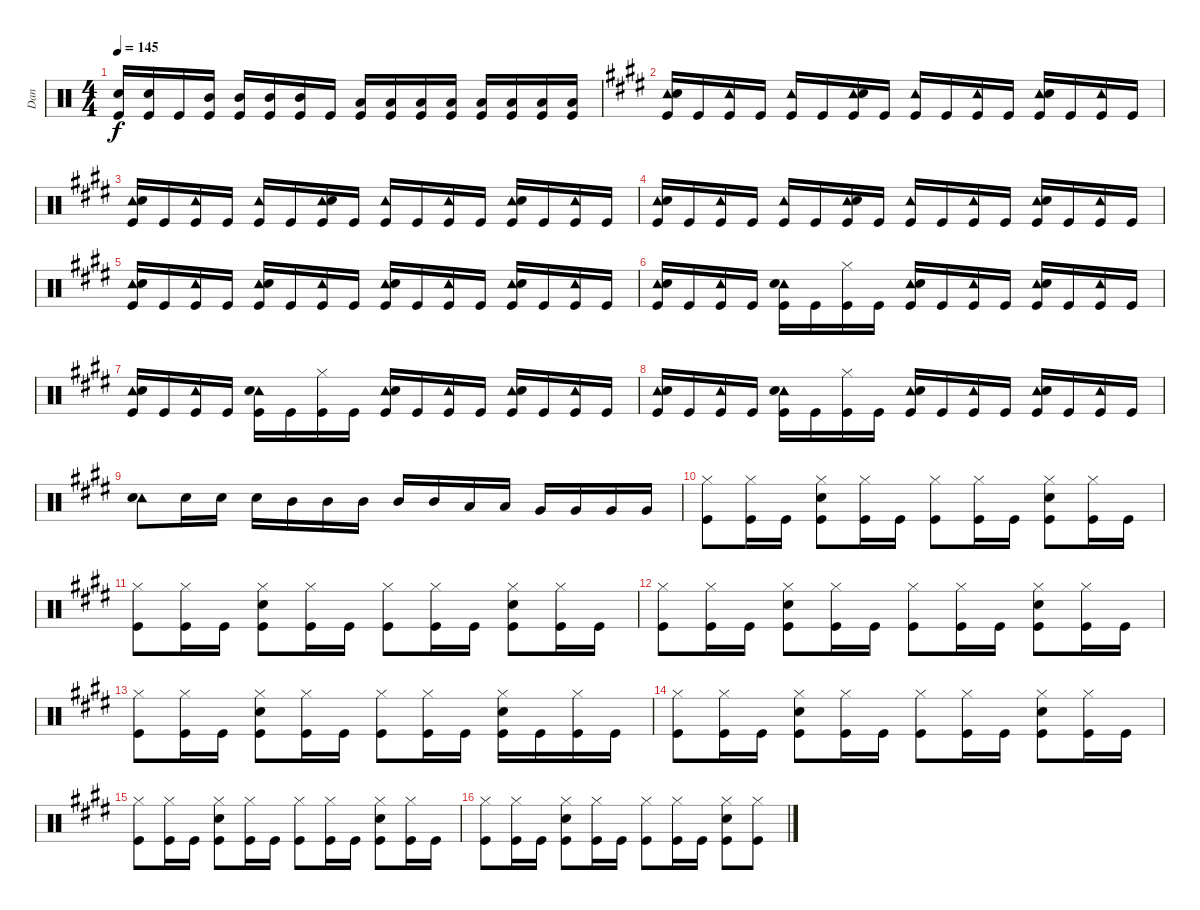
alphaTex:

\track ("Dan" "Dan") {instrument percussion}
\staff {score}
\articulation defaults
\ts (4 4)
\tempo 145
\clef neutral
\ks c
("Snare (hit) 2" "Kick (hit)").16{dy f} ("Snare (hit) 2" "Kick (hit)").16 "Kick (hit)".16 ("Mid Tom (hit)" "Kick (hit)").16 ("Mid Tom (hit)" "Kick (hit)").16 ("Mid Tom (hit)" "Kick (hit)").16 ("Mid Tom (hit)" "Kick (hit)").16 "Kick (hit)".16 ("Low Tom (hit)" "Kick (hit)").16 ("Low Tom (hit)" "Kick (hit)").16 ("Low Tom (hit)" "Kick (hit)").16 ("Low Tom (hit)" "Kick (hit)").16 ("Low Tom (hit)" "Kick (hit)").16 ("Low Tom (hit)" "Kick (hit)").16 ("Low Tom (hit)" "Kick (hit)").16 ("Low Tom (hit)" "Kick (hit)").16 |
\ks e
("Tambourine (hit)" "Snare (hit) 2" "Kick (hit)").16 "Kick (hit)".16 ("Tambourine (hit)" "Kick (hit)").16 "Kick (hit)".16 ("Tambourine (hit)" "Kick (hit)").16 "Kick (hit)".16 ("Tambourine (hit)" "Snare (hit) 2" "Kick (hit)").16 "Kick (hit)".16 ("Tambourine (hit)" "Kick (hit)").16 "Kick (hit)".16 ("Tambourine (hit)" "Kick (hit)").16 "Kick (hit)".16 ("Tambourine (hit)" "Snare (hit) 2" "Kick (hit)").16 "Kick (hit)".16 ("Tambourine (hit)" "Kick (hit)").16 "Kick (hit)".16 |
("Tambourine (hit)" "Snare (hit) 2" "Kick (hit)").16 "Kick (hit)".16 ("Tambourine (hit)" "Kick (hit)").16 "Kick (hit)".16 ("Tambourine (hit)" "Kick (hit)").16 "Kick (hit)".16 ("Tambourine (hit)" "Snare (hit) 2" "Kick (hit)").16 "Kick (hit)".16 ("Tambourine (hit)" "Kick (hit)").16 "Kick (hit)".16 ("Tambourine (hit)" "Kick (hit)").16 "Kick (hit)".16 ("Tambourine (hit)" "Snare (hit) 2" "Kick (hit)").16 "Kick (hit)".16 ("Tambourine (hit)" "Kick (hit)").16 "Kick (hit)".16 |
("Tambourine (hit)" "Snare (hit) 2" "Kick (hit)").16 "Kick (hit)".16 ("Tambourine (hit)" "Kick (hit)").16 "Kick (hit)".16 ("Tambourine (hit)" "Kick (hit)").16 "Kick (hit)".16 ("Tambourine (hit)" "Snare (hit) 2" "Kick (hit)").16 "Kick (hit)".16 ("Tambourine (hit)" "Kick (hit)").16 "Kick (hit)".16 ("Tambourine (hit)" "Kick (hit)").16 "Kick (hit)".16 ("Tambourine (hit)" "Snare (hit) 2" "Kick (hit)").16 "Kick (hit)".16 ("Tambourine (hit)" "Kick (hit)").16 "Kick (hit)".16 |
("Tambourine (hit)" "Snare (hit) 2" "Kick (hit)").16 "Kick (hit)".16 ("Tambourine (hit)" "Kick (hit)").16 "Kick (hit)".16 ("Tambourine (hit)" "Snare (hit) 2" "Kick (hit)").16 "Kick (hit)".16 ("Tambourine (hit)" "Kick (hit)").16 "Kick (hit)".16 ("Tambourine (hit)" "Snare (hit) 2" "Kick (hit)").16 "Kick (hit)".16 ("Tambourine (hit)" "Kick (hit)").16 "Kick (hit)".16 ("Tambourine (hit)" "Snare (hit) 2" "Kick (hit)").16 "Kick (hit)".16 ("Tambourine (hit)" "Kick (hit)").16 "Kick (hit)".16 |
("Tambourine (hit)" "Snare (hit) 2" "Kick (hit)").16 "Kick (hit)".16 ("Tambourine (hit)" "Kick (hit)").16 "Kick (hit)".16 ("Tambourine (hit)" "Snare (hit) 2" "Kick (hit)").16 "Kick (hit)".16 ("Hi-Hat (closed)" "Kick (hit)").16 "Kick (hit)".16 ("Tambourine (hit)" "Snare (hit) 2" "Kick (hit)").16 "Kick (hit)".16 ("Tambourine (hit)" "Kick (hit)").16 "Kick (hit)".16 ("Tambourine (hit)" "Snare (hit) 2" "Kick (hit)").16 "Kick (hit)".16 ("Tambourine (hit)" "Kick (hit)").16 "Kick (hit)".16 |
("Tambourine (hit)" "Snare (hit) 2" "Kick (hit)").16 "Kick (hit)".16 ("Tambourine (hit)" "Kick (hit)").16 "Kick (hit)".16 ("Tambourine (hit)" "Snare (hit) 2" "Kick (hit)").16 "Kick (hit)".16 ("Hi-Hat (closed)" "Kick (hit)").16 "Kick (hit)".16 ("Tambourine (hit)" "Snare (hit) 2" "Kick (hit)").16 "Kick (hit)".16 ("Tambourine (hit)" "Kick (hit)").16 "Kick (hit)".16 ("Tambourine (hit)" "Snare (hit) 2" "Kick (hit)").16 "Kick (hit)".16 ("Tambourine (hit)" "Kick (hit)").16 "Kick (hit)".16 |
("Tambourine (hit)" "Snare (hit) 2" "Kick (hit)").16 "Kick (hit)".16 ("Tambourine (hit)" "Kick (hit)").16 "Kick (hit)".16 ("Tambourine (hit)" "Snare (hit) 2" "Kick (hit)").16 "Kick (hit)".16 ("Hi-Hat (closed)" "Kick (hit)").16 "Kick (hit)".16 ("Tambourine (hit)" "Snare (hit) 2" "Kick (hit)").16 "Kick (hit)".16 ("Tambourine (hit)" "Kick (hit)").16 "Kick (hit)".16 ("Tambourine (hit)" "Snare (hit) 2" "Kick (hit)").16 "Kick (hit)".16 ("Tambourine (hit)" "Kick (hit)").16 "Kick (hit)".16 |
("Tambourine (hit)" "Snare (hit) 2").8 "Snare (hit) 2".16 "Snare (hit) 2".16 "Snare (hit) 2".16 "Mid Tom (hit)".16 "Mid Tom (hit)".16 "Mid Tom (hit)".16 "Mid Tom (hit)".16 "Mid Tom (hit)".16 "Low Tom (hit)".16 "Low Tom (hit)".16 "Very Low Tom (hit)".16 "Very Low Tom (hit)".16 "Very Low Tom (hit)".16 "Very Low Tom (hit)".16 |
("Hi-Hat (closed)" "Kick (hit)").8 ("Hi-Hat (closed)" "Kick (hit)").16 "Kick (hit)".16 ("Hi-Hat (closed)" "Snare (hit) 2" "Kick (hit)").8 ("Hi-Hat (closed)" "Kick (hit)").16 "Kick (hit)".16 ("Hi-Hat (closed)" "Kick (hit)").8 ("Hi-Hat (closed)" "Kick (hit)").16 "Kick (hit)".16 ("Hi-Hat (closed)" "Snare (hit) 2" "Kick (hit)").8 ("Hi-Hat (closed)" "Kick (hit)").16 "Kick (hit)".16 |
("Hi-Hat (closed)" "Kick (hit)").8 ("Hi-Hat (closed)" "Kick (hit)").16 "Kick (hit)".16 ("Hi-Hat (closed)" "Snare (hit) 2" "Kick (hit)").8 ("Hi-Hat (closed)" "Kick (hit)").16 "Kick (hit)".16 ("Hi-Hat (closed)" "Kick (hit)").8 ("Hi-Hat (closed)" "Kick (hit)").16 "Kick (hit)".16 ("Hi-Hat (closed)" "Snare (hit) 2" "Kick (hit)").8 ("Hi-Hat (closed)" "Kick (hit)").16 "Kick (hit)".16 |
("Hi-Hat (closed)" "Kick (hit)").8 ("Hi-Hat (closed)" "Kick (hit)").16 "Kick (hit)".16 ("Hi-Hat (closed)" "Snare (hit) 2" "Kick (hit)").8 ("Hi-Hat (closed)" "Kick (hit)").16 "Kick (hit)".16 ("Hi-Hat (closed)" "Kick (hit)").8 ("Hi-Hat (closed)" "Kick (hit)").16 "Kick (hit)".16 ("Hi-Hat (closed)" "Snare (hit) 2" "Kick (hit)").8 ("Hi-Hat (closed)" "Kick (hit)").16 "Kick (hit)".16 |
("Hi-Hat (closed)" "Kick (hit)").8 ("Hi-Hat (closed)" "Kick (hit)").16 "Kick (hit)".16 ("Hi-Hat (closed)" "Snare (hit) 2" "Kick (hit)").8 ("Hi-Hat (closed)" "Kick (hit)").16 "Kick (hit)".16 ("Hi-Hat (closed)" "Kick (hit)").8 ("Hi-Hat (closed)" "Kick (hit)").16 "Kick (hit)".16 ("Hi-Hat (closed)" "Snare (hit) 2" "Kick (hit)").16 "Kick (hit)".16 ("Hi-Hat (closed)" "Kick (hit)").16 "Kick (hit)".16 |
("Hi-Hat (closed)" "Kick (hit)").8 ("Hi-Hat (closed)" "Kick (hit)").16 "Kick (hit)".16 ("Hi-Hat (closed)" "Snare (hit) 2" "Kick (hit)").8 ("Hi-Hat (closed)" "Kick (hit)").16 "Kick (hit)".16 ("Hi-Hat (closed)" "Kick (hit)").8 ("Hi-Hat (closed)" "Kick (hit)").16 "Kick (hit)".16 ("Hi-Hat (closed)" "Snare (hit) 2" "Kick (hit)").8 ("Hi-Hat (closed)" "Kick (hit)").16 "Kick (hit)".16 |
("Hi-Hat (closed)" "Kick (hit)").8 ("Hi-Hat (closed)" "Kick (hit)").16 "Kick (hit)".16 ("Hi-Hat (closed)" "Snare (hit) 2" "Kick (hit)").8 ("Hi-Hat (closed)" "Kick (hit)").16 "Kick (hit)".16 ("Hi-Hat (closed)" "Kick (hit)").8 ("Hi-Hat (closed)" "Kick (hit)").16 "Kick (hit)".16 ("Hi-Hat (closed)" "Snare (hit) 2" "Kick (hit)").8 ("Hi-Hat (closed)" "Kick (hit)").16 "Kick (hit)".16 |
("Hi-Hat (closed)" "Kick (hit)").8 ("Hi-Hat (closed)" "Kick (hit)").16 "Kick (hit)".16 ("Hi-Hat (closed)" "Snare (hit) 2" "Kick (hit)").8 ("Hi-Hat (closed)" "Kick (hit)").16 "Kick (hit)".16 ("Hi-Hat (closed)" "Kick (hit)").8 ("Hi-Hat (closed)" "Kick (hit)").16 "Kick (hit)".16 ("Hi-Hat (closed)" "Snare (hit) 2" "Kick (hit)").8 ("Hi-Hat (closed)" "Kick (hit)").8
